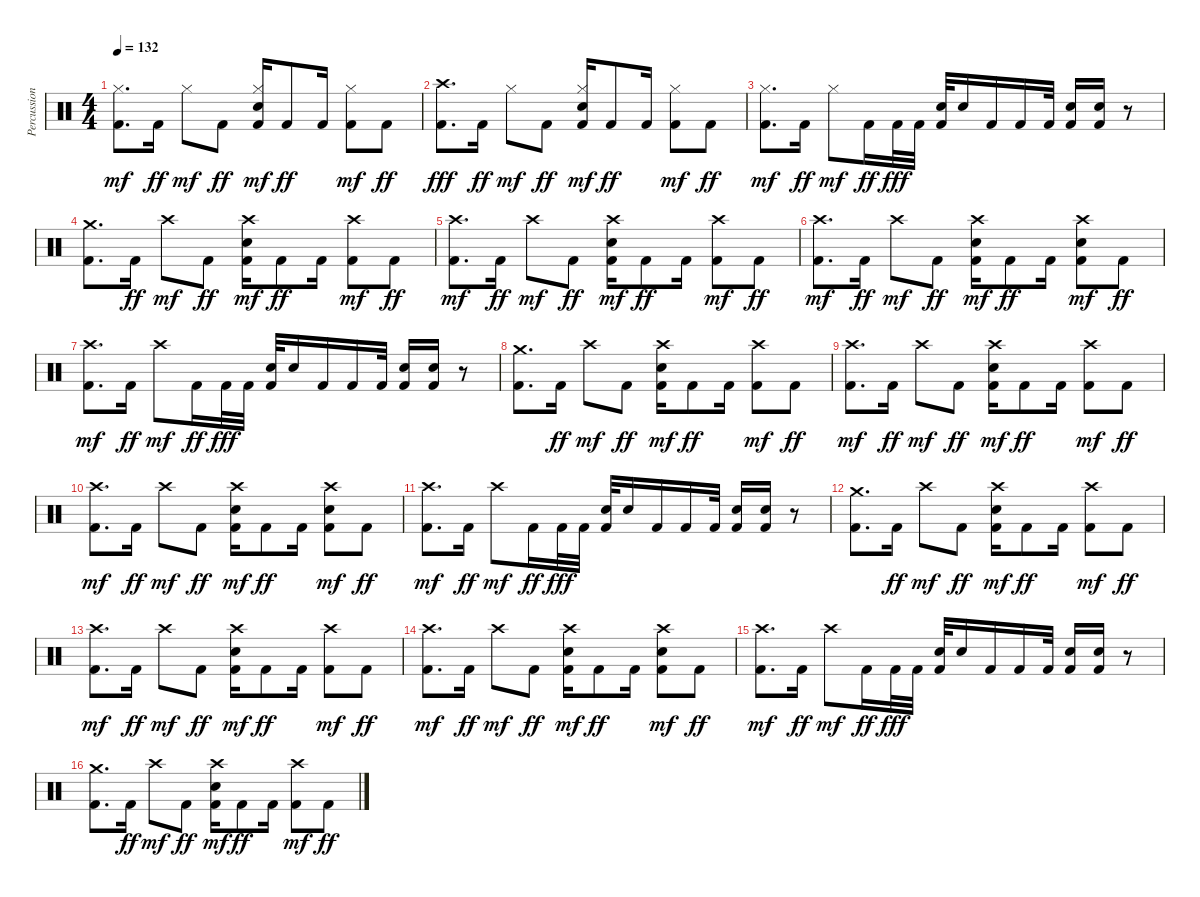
\track ("Percussion" "Percussion") {instrument percussion}
\staff {score}
\articulation defaults
\ts (4 4)
\tempo 132
\clef neutral
\ks c
("Kick (hit) 2" "Hi-Hat (closed)").8{d dy mf} "Kick (hit) 2".16{dy ff} "Hi-Hat (closed)".8{dy mf} "Kick (hit) 2".8{dy ff} ("Kick (hit) 2" "Electric Snare (hit)" "Hi-Hat (closed)").16{dy mf} "Kick (hit) 2".8{dy ff} "Kick (hit) 2".16 ("Kick (hit) 2" "Hi-Hat (closed)").8{dy mf} "Kick (hit) 2".8{dy ff} |
("Kick (hit) 2" "Crash high (hit)").8{d dy fff} "Kick (hit) 2".16{dy ff} "Hi-Hat (closed)".8{dy mf} "Kick (hit) 2".8{dy ff} ("Kick (hit) 2" "Electric Snare (hit)" "Hi-Hat (closed)").16{dy mf} "Kick (hit) 2".8{dy ff} "Kick (hit) 2".16 ("Kick (hit) 2" "Hi-Hat (closed)").8{dy mf} "Kick (hit) 2".8{dy ff} |
("Kick (hit) 2" "Hi-Hat (closed)").8{d dy mf} "Kick (hit) 2".16{dy ff} "Hi-Hat (closed)".8{dy mf} "Kick (hit) 2".16{dy ff} "Kick (hit) 2".32{dy fff} "Kick (hit) 2".32 ("Kick (hit) 2" "Electric Snare (hit)").32 "Electric Snare (hit)".16 "Kick (hit) 2".16 "Kick (hit) 2".16 "Kick (hit) 2".32 ("Kick (hit) 2" "Electric Snare (hit)").16 ("Kick (hit) 2" "Electric Snare (hit)").16 r.8 |
("Kick (hit) 2" "Crash medium (hit)").8{d} "Kick (hit) 2".16{dy ff} "Crash high (hit)".8{dy mf} "Kick (hit) 2".8{dy ff} ("Kick (hit) 2" "Electric Snare (hit)" "Crash high (hit)").16{dy mf} "Kick (hit) 2".8{dy ff} "Kick (hit) 2".16 ("Kick (hit) 2" "Crash high (hit)").8{dy mf} "Kick (hit) 2".8{dy ff} |
("Kick (hit) 2" "Crash high (hit)").8{d dy mf} "Kick (hit) 2".16{dy ff} "Crash high (hit)".8{dy mf} "Kick (hit) 2".8{dy ff} ("Kick (hit) 2" "Electric Snare (hit)" "Crash high (hit)").16{dy mf} "Kick (hit) 2".8{dy ff} "Kick (hit) 2".16 ("Kick (hit) 2" "Crash high (hit)").8{dy mf} "Kick (hit) 2".8{dy ff} |
("Kick (hit) 2" "Crash high (hit)").8{d dy mf} "Kick (hit) 2".16{dy ff} "Crash high (hit)".8{dy mf} "Kick (hit) 2".8{dy ff} ("Kick (hit) 2" "Electric Snare (hit)" "Crash high (hit)").16{dy mf} "Kick (hit) 2".8{dy ff} "Kick (hit) 2".16 ("Kick (hit) 2" "Electric Snare (hit)" "Crash high (hit)").8{dy mf} "Kick (hit) 2".8{dy ff} |
("Kick (hit) 2" "Crash high (hit)").8{d dy mf} "Kick (hit) 2".16{dy ff} "Crash high (hit)".8{dy mf} "Kick (hit) 2".16{dy ff} "Kick (hit) 2".32{dy fff} "Kick (hit) 2".32 ("Kick (hit) 2" "Electric Snare (hit)").32 "Electric Snare (hit)".16 "Kick (hit) 2".16 "Kick (hit) 2".16 "Kick (hit) 2".32 ("Kick (hit) 2" "Electric Snare (hit)").16 ("Kick (hit) 2" "Electric Snare (hit)").16 r.8 |
("Kick (hit) 2" "Crash medium (hit)").8{d} "Kick (hit) 2".16{dy ff} "Crash high (hit)".8{dy mf} "Kick (hit) 2".8{dy ff} ("Kick (hit) 2" "Electric Snare (hit)" "Crash high (hit)").16{dy mf} "Kick (hit) 2".8{dy ff} "Kick (hit) 2".16 ("Kick (hit) 2" "Crash high (hit)").8{dy mf} "Kick (hit) 2".8{dy ff} |
("Kick (hit) 2" "Crash high (hit)").8{d dy mf} "Kick (hit) 2".16{dy ff} "Crash high (hit)".8{dy mf} "Kick (hit) 2".8{dy ff} ("Kick (hit) 2" "Electric Snare (hit)" "Crash high (hit)").16{dy mf} "Kick (hit) 2".8{dy ff} "Kick (hit) 2".16 ("Kick (hit) 2" "Crash high (hit)").8{dy mf} "Kick (hit) 2".8{dy ff} |
("Kick (hit) 2" "Crash high (hit)").8{d dy mf} "Kick (hit) 2".16{dy ff} "Crash high (hit)".8{dy mf} "Kick (hit) 2".8{dy ff} ("Kick (hit) 2" "Electric Snare (hit)" "Crash high (hit)").16{dy mf} "Kick (hit) 2".8{dy ff} "Kick (hit) 2".16 ("Kick (hit) 2" "Electric Snare (hit)" "Crash high (hit)").8{dy mf} "Kick (hit) 2".8{dy ff} |
("Kick (hit) 2" "Crash high (hit)").8{d dy mf} "Kick (hit) 2".16{dy ff} "Crash high (hit)".8{dy mf} "Kick (hit) 2".16{dy ff} "Kick (hit) 2".32{dy fff} "Kick (hit) 2".32 ("Kick (hit) 2" "Electric Snare (hit)").32 "Electric Snare (hit)".16 "Kick (hit) 2".16 "Kick (hit) 2".16 "Kick (hit) 2".32 ("Kick (hit) 2" "Electric Snare (hit)").16 ("Kick (hit) 2" "Electric Snare (hit)").16 r.8 |
("Kick (hit) 2" "Crash medium (hit)").8{d} "Kick (hit) 2".16{dy ff} "Crash high (hit)".8{dy mf} "Kick (hit) 2".8{dy ff} ("Kick (hit) 2" "Electric Snare (hit)" "Crash high (hit)").16{dy mf} "Kick (hit) 2".8{dy ff} "Kick (hit) 2".16 ("Kick (hit) 2" "Crash high (hit)").8{dy mf} "Kick (hit) 2".8{dy ff} |
("Kick (hit) 2" "Crash high (hit)").8{d dy mf} "Kick (hit) 2".16{dy ff} "Crash high (hit)".8{dy mf} "Kick (hit) 2".8{dy ff} ("Kick (hit) 2" "Electric Snare (hit)" "Crash high (hit)").16{dy mf} "Kick (hit) 2".8{dy ff} "Kick (hit) 2".16 ("Kick (hit) 2" "Crash high (hit)").8{dy mf} "Kick (hit) 2".8{dy ff} |
("Kick (hit) 2" "Crash high (hit)").8{d dy mf} "Kick (hit) 2".16{dy ff} "Crash high (hit)".8{dy mf} "Kick (hit) 2".8{dy ff} ("Kick (hit) 2" "Electric Snare (hit)" "Crash high (hit)").16{dy mf} "Kick (hit) 2".8{dy ff} "Kick (hit) 2".16 ("Kick (hit) 2" "Electric Snare (hit)" "Crash high (hit)").8{dy mf} "Kick (hit) 2".8{dy ff} |
("Kick (hit) 2" "Crash high (hit)").8{d dy mf} "Kick (hit) 2".16{dy ff} "Crash high (hit)".8{dy mf} "Kick (hit) 2".16{dy ff} "Kick (hit) 2".32{dy fff} "Kick (hit) 2".32 ("Kick (hit) 2" "Electric Snare (hit)").32 "Electric Snare (hit)".16 "Kick (hit) 2".16 "Kick (hit) 2".16 "Kick (hit) 2".32 ("Kick (hit) 2" "Electric Snare (hit)").16 ("Kick (hit) 2" "Electric Snare (hit)").16 r.8 |
("Kick (hit) 2" "Crash medium (hit)").8{d} "Kick (hit) 2".16{dy ff} "Crash high (hit)".8{dy mf} "Kick (hit) 2".8{dy ff} ("Kick (hit) 2" "Electric Snare (hit)" "Crash high (hit)").16{dy mf} "Kick (hit) 2".8{dy ff} "Kick (hit) 2".16 ("Kick (hit) 2" "Crash high (hit)").8{dy mf} "Kick (hit) 2".8{dy ff}
